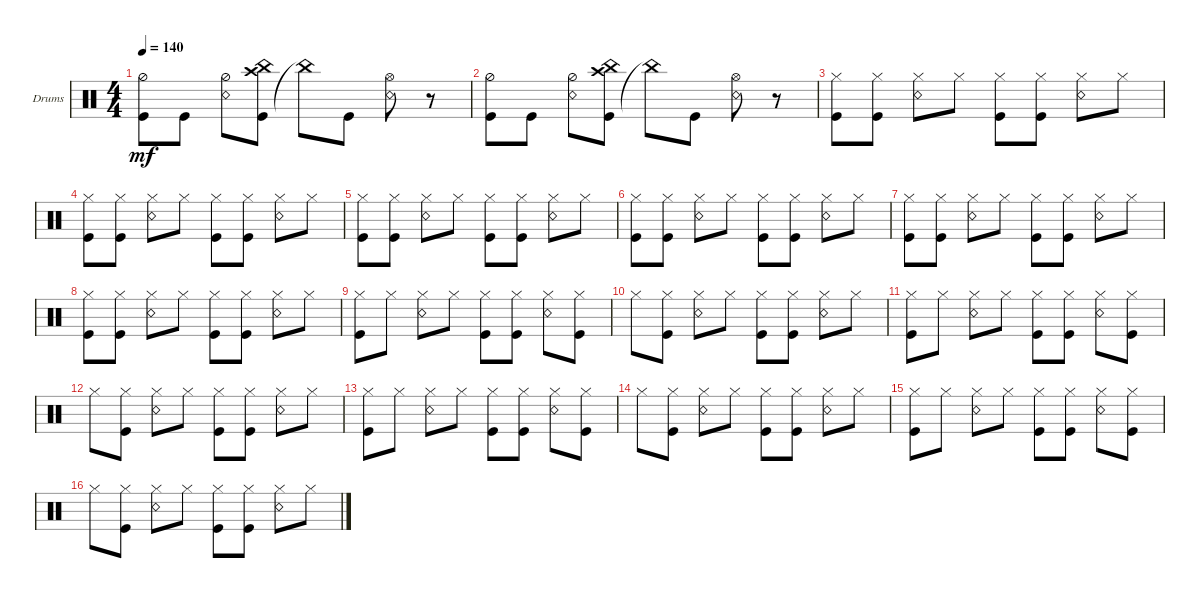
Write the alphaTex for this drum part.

\defaultSystemsLayout 4
\bracketExtendMode groupsimilarinstruments
\firstSystemTrackNameOrientation horizontal
\otherSystemsTrackNameOrientation horizontal
\track ("Drumkit" "Drums") {instrument percussion}
\staff {score}
\articulation defaults
\ts (4 4)
\tempo 140
\clef neutral
\ks c
("Kick (hit)" "Hi-Hat (half)").8{dy mf} "Kick (hit)".8 ("Snare (rim shot)" "Hi-Hat (half)").8 ("Kick (hit)" "China (hit)" "Crash high (hit)").8 "China (hit)"{t}.8 "Kick (hit)".8 ("Snare (rim shot)" "Hi-Hat (open)").8 r.8 |
("Kick (hit)" "Hi-Hat (half)").8 "Kick (hit)".8 ("Snare (rim shot)" "Hi-Hat (half)").8 ("Kick (hit)" "China (hit)" "Crash high (hit)").8 "China (hit)"{t}.8 "Kick (hit)".8 ("Snare (rim shot)" "Hi-Hat (open)").8 r.8 |
("Hi-Hat (closed)" "Kick (hit)").8 ("Hi-Hat (closed)" "Kick (hit)").8 ("Hi-Hat (closed)" "Snare (rim shot)").8 "Hi-Hat (closed)".8 ("Hi-Hat (closed)" "Kick (hit)").8 ("Hi-Hat (closed)" "Kick (hit)").8 ("Hi-Hat (closed)" "Snare (rim shot)").8 "Hi-Hat (closed)".8 |
("Hi-Hat (closed)" "Kick (hit)").8 ("Hi-Hat (closed)" "Kick (hit)").8 ("Hi-Hat (closed)" "Snare (rim shot)").8 "Hi-Hat (closed)".8 ("Hi-Hat (closed)" "Kick (hit)").8 ("Hi-Hat (closed)" "Kick (hit)").8 ("Hi-Hat (closed)" "Snare (rim shot)").8 "Hi-Hat (closed)".8 |
("Hi-Hat (closed)" "Kick (hit)").8 ("Hi-Hat (closed)" "Kick (hit)").8 ("Hi-Hat (closed)" "Snare (rim shot)").8 "Hi-Hat (closed)".8 ("Hi-Hat (closed)" "Kick (hit)").8 ("Hi-Hat (closed)" "Kick (hit)").8 ("Hi-Hat (closed)" "Snare (rim shot)").8 "Hi-Hat (closed)".8 |
("Hi-Hat (closed)" "Kick (hit)").8 ("Hi-Hat (closed)" "Kick (hit)").8 ("Hi-Hat (closed)" "Snare (rim shot)").8 "Hi-Hat (closed)".8 ("Hi-Hat (closed)" "Kick (hit)").8 ("Hi-Hat (closed)" "Kick (hit)").8 ("Hi-Hat (closed)" "Snare (rim shot)").8 "Hi-Hat (closed)".8 |
("Hi-Hat (closed)" "Kick (hit)").8 ("Hi-Hat (closed)" "Kick (hit)").8 ("Hi-Hat (closed)" "Snare (rim shot)").8 "Hi-Hat (closed)".8 ("Hi-Hat (closed)" "Kick (hit)").8 ("Hi-Hat (closed)" "Kick (hit)").8 ("Hi-Hat (closed)" "Snare (rim shot)").8 "Hi-Hat (closed)".8 |
("Hi-Hat (closed)" "Kick (hit)").8 ("Hi-Hat (closed)" "Kick (hit)").8 ("Hi-Hat (closed)" "Snare (rim shot)").8 "Hi-Hat (closed)".8 ("Hi-Hat (closed)" "Kick (hit)").8 ("Hi-Hat (closed)" "Kick (hit)").8 ("Hi-Hat (closed)" "Snare (rim shot)").8 "Hi-Hat (closed)".8 |
("Kick (hit)" "Hi-Hat (closed)").8 "Hi-Hat (closed)".8 ("Hi-Hat (closed)" "Snare (rim shot)").8 "Hi-Hat (closed)".8 ("Hi-Hat (closed)" "Kick (hit)").8 ("Hi-Hat (closed)" "Kick (hit)").8 ("Hi-Hat (closed)" "Snare (rim shot)").8 ("Hi-Hat (closed)" "Kick (hit)").8 |
"Hi-Hat (closed)".8 ("Hi-Hat (closed)" "Kick (hit)").8 ("Hi-Hat (closed)" "Snare (rim shot)").8 "Hi-Hat (closed)".8 ("Hi-Hat (closed)" "Kick (hit)").8 ("Hi-Hat (closed)" "Kick (hit)").8 ("Hi-Hat (closed)" "Snare (rim shot)").8 "Hi-Hat (closed)".8 |
("Kick (hit)" "Hi-Hat (closed)").8 "Hi-Hat (closed)".8 ("Hi-Hat (closed)" "Snare (rim shot)").8 "Hi-Hat (closed)".8 ("Hi-Hat (closed)" "Kick (hit)").8 ("Hi-Hat (closed)" "Kick (hit)").8 ("Hi-Hat (closed)" "Snare (rim shot)").8 ("Hi-Hat (closed)" "Kick (hit)").8 |
"Hi-Hat (closed)".8 ("Hi-Hat (closed)" "Kick (hit)").8 ("Hi-Hat (closed)" "Snare (rim shot)").8 "Hi-Hat (closed)".8 ("Hi-Hat (closed)" "Kick (hit)").8 ("Hi-Hat (closed)" "Kick (hit)").8 ("Hi-Hat (closed)" "Snare (rim shot)").8 "Hi-Hat (closed)".8 |
("Kick (hit)" "Hi-Hat (closed)").8 "Hi-Hat (closed)".8 ("Hi-Hat (closed)" "Snare (rim shot)").8 "Hi-Hat (closed)".8 ("Hi-Hat (closed)" "Kick (hit)").8 ("Hi-Hat (closed)" "Kick (hit)").8 ("Hi-Hat (closed)" "Snare (rim shot)").8 ("Hi-Hat (closed)" "Kick (hit)").8 |
"Hi-Hat (closed)".8 ("Hi-Hat (closed)" "Kick (hit)").8 ("Hi-Hat (closed)" "Snare (rim shot)").8 "Hi-Hat (closed)".8 ("Hi-Hat (closed)" "Kick (hit)").8 ("Hi-Hat (closed)" "Kick (hit)").8 ("Hi-Hat (closed)" "Snare (rim shot)").8 "Hi-Hat (closed)".8 |
("Kick (hit)" "Hi-Hat (closed)").8 "Hi-Hat (closed)".8 ("Hi-Hat (closed)" "Snare (rim shot)").8 "Hi-Hat (closed)".8 ("Hi-Hat (closed)" "Kick (hit)").8 ("Hi-Hat (closed)" "Kick (hit)").8 ("Hi-Hat (closed)" "Snare (rim shot)").8 ("Hi-Hat (closed)" "Kick (hit)").8 |
"Hi-Hat (closed)".8 ("Hi-Hat (closed)" "Kick (hit)").8 ("Hi-Hat (closed)" "Snare (rim shot)").8 "Hi-Hat (closed)".8 ("Hi-Hat (closed)" "Kick (hit)").8 ("Hi-Hat (closed)" "Kick (hit)").8 ("Hi-Hat (closed)" "Snare (rim shot)").8 "Hi-Hat (closed)".8
